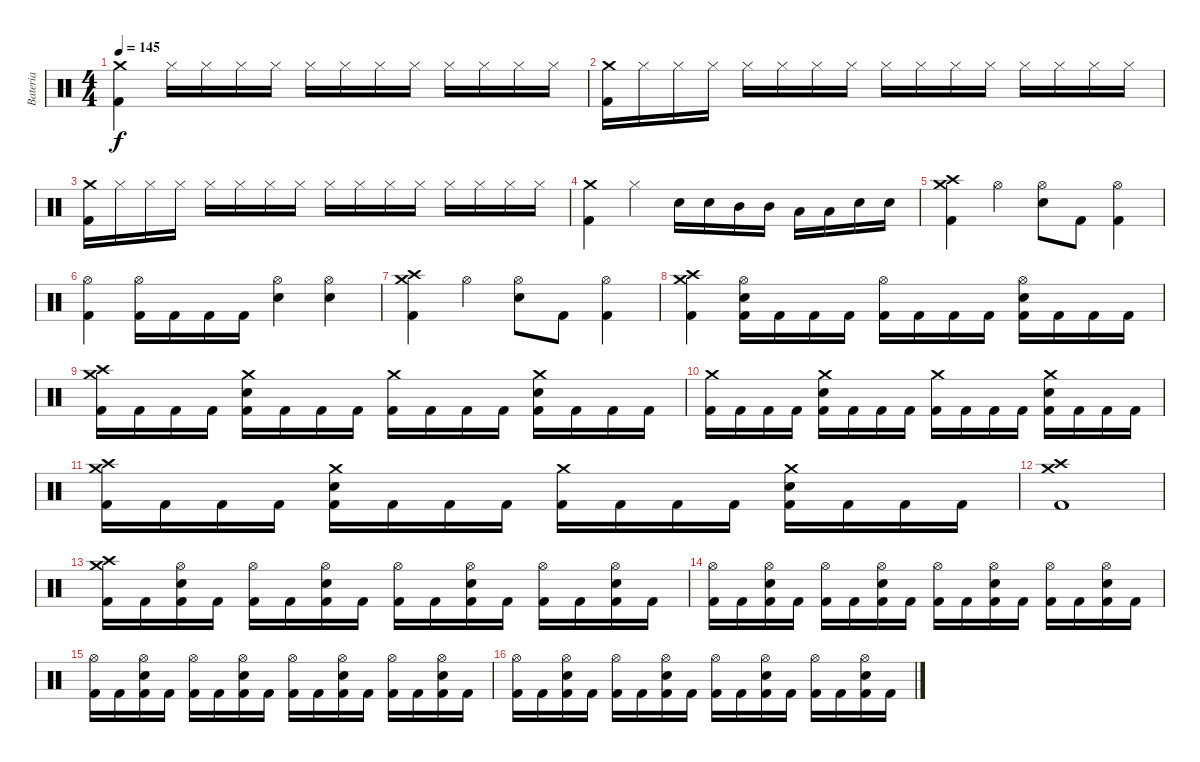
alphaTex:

\track ("Bateria" "Bateria") {instrument percussion}
\staff {score}
\articulation defaults
\ts (4 4)
\tempo 145
\clef neutral
\ks c
("Crash medium (hit)" "Kick (hit) 2").4{dy f} "Hi-Hat (closed)".16 "Hi-Hat (closed)".16 "Hi-Hat (closed)".16 "Hi-Hat (closed)".16 "Hi-Hat (closed)".16 "Hi-Hat (closed)".16 "Hi-Hat (closed)".16 "Hi-Hat (closed)".16 "Hi-Hat (closed)".16 "Hi-Hat (closed)".16 "Hi-Hat (closed)".16 "Hi-Hat (closed)".16 |
("Crash medium (hit)" "Kick (hit) 2").16 "Hi-Hat (closed)".16 "Hi-Hat (closed)".16 "Hi-Hat (closed)".16 "Hi-Hat (closed)".16 "Hi-Hat (closed)".16 "Hi-Hat (closed)".16 "Hi-Hat (closed)".16 "Hi-Hat (closed)".16 "Hi-Hat (closed)".16 "Hi-Hat (closed)".16 "Hi-Hat (closed)".16 "Hi-Hat (closed)".16 "Hi-Hat (closed)".16 "Hi-Hat (closed)".16 "Hi-Hat (closed)".16 |
("Crash medium (hit)" "Kick (hit) 2").16 "Hi-Hat (closed)".16 "Hi-Hat (closed)".16 "Hi-Hat (closed)".16 "Hi-Hat (closed)".16 "Hi-Hat (closed)".16 "Hi-Hat (closed)".16 "Hi-Hat (closed)".16 "Hi-Hat (closed)".16 "Hi-Hat (closed)".16 "Hi-Hat (closed)".16 "Hi-Hat (closed)".16 "Hi-Hat (closed)".16 "Hi-Hat (closed)".16 "Hi-Hat (closed)".16 "Hi-Hat (closed)".16 |
("Crash medium (hit)" "Kick (hit) 2").4 "Hi-Hat (closed)".4 "Snare (hit) 2".16 "Snare (hit) 2".16 "Mid Tom (hit)".16 "Mid Tom (hit)".16 "Low Tom (hit)".16 "Low Tom (hit)".16 "Snare (hit) 2".16 "Snare (hit) 2".16 |
("Crash high (hit)" "Crash medium (hit)" "Kick (hit) 2").4 "Hi-Hat (open)".4 ("Hi-Hat (open)" "Snare (hit) 2").8 "Kick (hit) 2".8 ("Hi-Hat (open)" "Kick (hit) 2").4 |
("Hi-Hat (open)" "Kick (hit) 2").4 ("Hi-Hat (open)" "Kick (hit) 2").16 "Kick (hit) 2".16 "Kick (hit) 2".16 "Kick (hit) 2".16 ("Hi-Hat (open)" "Snare (hit) 2").4 ("Hi-Hat (open)" "Snare (hit) 2").4 |
("Crash high (hit)" "Crash medium (hit)" "Kick (hit) 2").4 "Hi-Hat (open)".4 ("Hi-Hat (open)" "Snare (hit) 2").8 "Kick (hit) 2".8 ("Hi-Hat (open)" "Kick (hit) 2").4 |
("Crash high (hit)" "Crash medium (hit)" "Kick (hit) 2").4 ("Hi-Hat (open)" "Snare (hit) 2" "Kick (hit) 2").16 "Kick (hit) 2".16 "Kick (hit) 2".16 "Kick (hit) 2".16 ("Hi-Hat (open)" "Kick (hit) 2").16 "Kick (hit) 2".16 "Kick (hit) 2".16 "Kick (hit) 2".16 ("Hi-Hat (open)" "Snare (hit) 2" "Kick (hit) 2").16 "Kick (hit) 2".16 "Kick (hit) 2".16 "Kick (hit) 2".16 |
("Crash high (hit)" "Crash medium (hit)" "Kick (hit) 2").16 "Kick (hit) 2".16 "Kick (hit) 2".16 "Kick (hit) 2".16 ("Crash medium (hit)" "Snare (hit) 2" "Kick (hit) 2").16 "Kick (hit) 2".16 "Kick (hit) 2".16 "Kick (hit) 2".16 ("Crash medium (hit)" "Kick (hit) 2").16 "Kick (hit) 2".16 "Kick (hit) 2".16 "Kick (hit) 2".16 ("Crash medium (hit)" "Snare (hit) 2" "Kick (hit) 2").16 "Kick (hit) 2".16 "Kick (hit) 2".16 "Kick (hit) 2".16 |
("Crash medium (hit)" "Kick (hit) 2").16 "Kick (hit) 2".16 "Kick (hit) 2".16 "Kick (hit) 2".16 ("Crash medium (hit)" "Snare (hit) 2" "Kick (hit) 2").16 "Kick (hit) 2".16 "Kick (hit) 2".16 "Kick (hit) 2".16 ("Crash medium (hit)" "Kick (hit) 2").16 "Kick (hit) 2".16 "Kick (hit) 2".16 "Kick (hit) 2".16 ("Crash medium (hit)" "Snare (hit) 2" "Kick (hit) 2").16 "Kick (hit) 2".16 "Kick (hit) 2".16 "Kick (hit) 2".16 |
("Crash high (hit)" "Crash medium (hit)" "Kick (hit) 2").16 "Kick (hit) 2".16 "Kick (hit) 2".16 "Kick (hit) 2".16 ("Crash medium (hit)" "Snare (hit) 2" "Kick (hit) 2").16 "Kick (hit) 2".16 "Kick (hit) 2".16 "Kick (hit) 2".16 ("Crash medium (hit)" "Kick (hit) 2").16 "Kick (hit) 2".16 "Kick (hit) 2".16 "Kick (hit) 2".16 ("Crash medium (hit)" "Snare (hit) 2" "Kick (hit) 2").16 "Kick (hit) 2".16 "Kick (hit) 2".16 "Kick (hit) 2".16 |
("Crash high (hit)" "Crash medium (hit)" "Kick (hit) 2").1 |
("Crash high (hit)" "Crash medium (hit)" "Kick (hit) 2").16 "Kick (hit) 2".16 ("Hi-Hat (open)" "Snare (hit) 2" "Kick (hit) 2").16 "Kick (hit) 2".16 ("Hi-Hat (open)" "Kick (hit) 2").16 "Kick (hit) 2".16 ("Hi-Hat (open)" "Snare (hit) 2" "Kick (hit) 2").16 "Kick (hit) 2".16 ("Hi-Hat (open)" "Kick (hit) 2").16 "Kick (hit) 2".16 ("Hi-Hat (open)" "Snare (hit) 2" "Kick (hit) 2").16 "Kick (hit) 2".16 ("Hi-Hat (open)" "Kick (hit) 2").16 "Kick (hit) 2".16 ("Hi-Hat (open)" "Snare (hit) 2" "Kick (hit) 2").16 "Kick (hit) 2".16 |
("Hi-Hat (open)" "Kick (hit) 2").16 "Kick (hit) 2".16 ("Hi-Hat (open)" "Snare (hit) 2" "Kick (hit) 2").16 "Kick (hit) 2".16 ("Hi-Hat (open)" "Kick (hit) 2").16 "Kick (hit) 2".16 ("Hi-Hat (open)" "Snare (hit) 2" "Kick (hit) 2").16 "Kick (hit) 2".16 ("Hi-Hat (open)" "Kick (hit) 2").16 "Kick (hit) 2".16 ("Hi-Hat (open)" "Snare (hit) 2" "Kick (hit) 2").16 "Kick (hit) 2".16 ("Hi-Hat (open)" "Kick (hit) 2").16 "Kick (hit) 2".16 ("Hi-Hat (open)" "Snare (hit) 2" "Kick (hit) 2").16 "Kick (hit) 2".16 |
("Hi-Hat (open)" "Kick (hit) 2").16 "Kick (hit) 2".16 ("Hi-Hat (open)" "Snare (hit) 2" "Kick (hit) 2").16 "Kick (hit) 2".16 ("Hi-Hat (open)" "Kick (hit) 2").16 "Kick (hit) 2".16 ("Hi-Hat (open)" "Snare (hit) 2" "Kick (hit) 2").16 "Kick (hit) 2".16 ("Hi-Hat (open)" "Kick (hit) 2").16 "Kick (hit) 2".16 ("Hi-Hat (open)" "Snare (hit) 2" "Kick (hit) 2").16 "Kick (hit) 2".16 ("Hi-Hat (open)" "Kick (hit) 2").16 "Kick (hit) 2".16 ("Hi-Hat (open)" "Snare (hit) 2" "Kick (hit) 2").16 "Kick (hit) 2".16 |
("Hi-Hat (open)" "Kick (hit) 2").16 "Kick (hit) 2".16 ("Hi-Hat (open)" "Snare (hit) 2" "Kick (hit) 2").16 "Kick (hit) 2".16 ("Hi-Hat (open)" "Kick (hit) 2").16 "Kick (hit) 2".16 ("Hi-Hat (open)" "Snare (hit) 2" "Kick (hit) 2").16 "Kick (hit) 2".16 ("Hi-Hat (open)" "Kick (hit) 2").16 "Kick (hit) 2".16 ("Hi-Hat (open)" "Snare (hit) 2" "Kick (hit) 2").16 "Kick (hit) 2".16 ("Hi-Hat (open)" "Kick (hit) 2").16 "Kick (hit) 2".16 ("Hi-Hat (open)" "Snare (hit) 2" "Kick (hit) 2").16 "Kick (hit) 2".16
